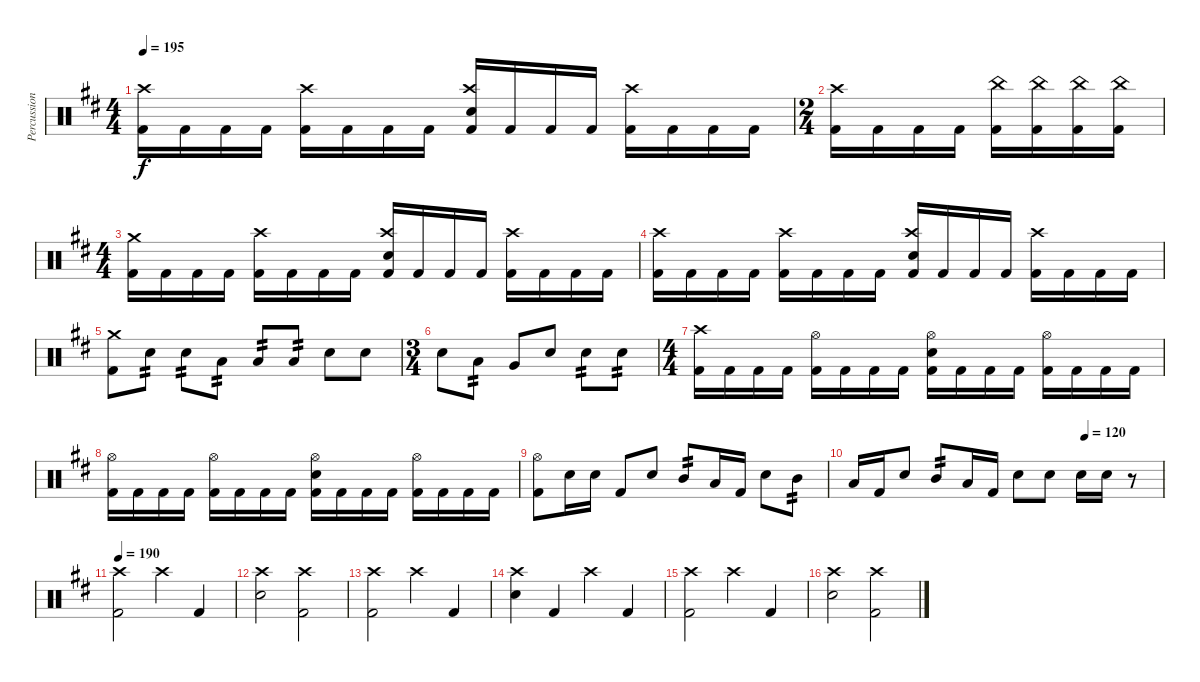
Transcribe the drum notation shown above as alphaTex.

\track ("Percussion" "Percussion") {instrument percussion}
\staff {score}
\articulation defaults
\ts (4 4)
\tempo 195
\clef neutral
\ks d
("Kick (hit) 2" "Crash high (hit)").16{dy f} "Kick (hit) 2".16 "Kick (hit) 2".16 "Kick (hit) 2".16 ("Kick (hit) 2" "Crash high (hit)").16 "Kick (hit) 2".16 "Kick (hit) 2".16 "Kick (hit) 2".16 ("Kick (hit) 2" "Crash high (hit)" "Electric Snare (hit)").16 "Kick (hit) 2".16 "Kick (hit) 2".16 "Kick (hit) 2".16 ("Kick (hit) 2" "Crash high (hit)").16 "Kick (hit) 2".16 "Kick (hit) 2".16 "Kick (hit) 2".16 |
\ts (2 4)
("Kick (hit) 2" "Crash high (hit)").16 "Kick (hit) 2".16 "Kick (hit) 2".16 "Kick (hit) 2".16 ("Kick (hit) 2" "China (hit)").16 ("Kick (hit) 2" "China (hit)").16 ("Kick (hit) 2" "China (hit)").16 ("Kick (hit) 2" "China (hit)").16 |
\ts (4 4)
("Kick (hit) 2" "Crash medium (hit)").16 "Kick (hit) 2".16 "Kick (hit) 2".16 "Kick (hit) 2".16 ("Kick (hit) 2" "Crash high (hit)").16 "Kick (hit) 2".16 "Kick (hit) 2".16 "Kick (hit) 2".16 ("Kick (hit) 2" "Crash high (hit)" "Electric Snare (hit)").16 "Kick (hit) 2".16 "Kick (hit) 2".16 "Kick (hit) 2".16 ("Kick (hit) 2" "Crash high (hit)").16 "Kick (hit) 2".16 "Kick (hit) 2".16 "Kick (hit) 2".16 |
("Kick (hit) 2" "Crash high (hit)").16 "Kick (hit) 2".16 "Kick (hit) 2".16 "Kick (hit) 2".16 ("Kick (hit) 2" "Crash high (hit)").16 "Kick (hit) 2".16 "Kick (hit) 2".16 "Kick (hit) 2".16 ("Kick (hit) 2" "Crash high (hit)" "Electric Snare (hit)").16 "Kick (hit) 2".16 "Kick (hit) 2".16 "Kick (hit) 2".16 ("Kick (hit) 2" "Crash high (hit)").16 "Kick (hit) 2".16 "Kick (hit) 2".16 "Kick (hit) 2".16 |
("Crash medium (hit)" "Kick (hit) 2").8 "Electric Snare (hit)".8{tp 2} "Electric Snare (hit)".8{tp 2} "Low Tom (hit)".8{tp 2} "Low Tom (hit)".8{tp 2} "Low Tom (hit)".8{tp 2} "Electric Snare (hit)".8 "Electric Snare (hit)".8 |
\ts (3 4)
"Electric Snare (hit)".8 "Low Tom (hit)".8{tp 2} "Very Low Tom (hit)".8 "Electric Snare (hit)".8 "Electric Snare (hit)".8{tp 2} "Electric Snare (hit)".8{tp 2} |
\ts (4 4)
("Kick (hit) 2" "Crash high (hit)").16 "Kick (hit) 2".16 "Kick (hit) 2".16 "Kick (hit) 2".16 ("Kick (hit) 2" "Hi-Hat (open)").16 "Kick (hit) 2".16 "Kick (hit) 2".16 "Kick (hit) 2".16 ("Kick (hit) 2" "Hi-Hat (open)" "Electric Snare (hit)").16 "Kick (hit) 2".16 "Kick (hit) 2".16 "Kick (hit) 2".16 ("Kick (hit) 2" "Hi-Hat (open)").16 "Kick (hit) 2".16 "Kick (hit) 2".16 "Kick (hit) 2".16 |
("Kick (hit) 2" "Hi-Hat (open)").16 "Kick (hit) 2".16 "Kick (hit) 2".16 "Kick (hit) 2".16 ("Kick (hit) 2" "Hi-Hat (open)").16 "Kick (hit) 2".16 "Kick (hit) 2".16 "Kick (hit) 2".16 ("Kick (hit) 2" "Hi-Hat (open)" "Electric Snare (hit)").16 "Kick (hit) 2".16 "Kick (hit) 2".16 "Kick (hit) 2".16 ("Kick (hit) 2" "Hi-Hat (open)").16 "Kick (hit) 2".16 "Kick (hit) 2".16 "Kick (hit) 2".16 |
("Hi-Hat (open)" "Kick (hit) 2").8 "Electric Snare (hit)".16 "Electric Snare (hit)".16 "Kick (hit) 2".8 "Electric Snare (hit)".8 "Mid Tom (hit)".8{tp 2} "Low Tom (hit)".16 "Kick (hit) 2".16 "Electric Snare (hit)".8 "Mid Tom (hit)".8{tp 2} |
\tempo (120 0.75)
"Low Tom (hit)".16 "Kick (hit) 2".16 "Electric Snare (hit)".8 "Mid Tom (hit)".8{tp 2} "Low Tom (hit)".16 "Kick (hit) 2".16 "Electric Snare (hit)".8 "Electric Snare (hit)".8 "Electric Snare (hit)".16 "Electric Snare (hit)".16 r.8 |
\tempo 190
("Crash high (hit)" "Kick (hit) 2").2 "Crash high (hit)".4 "Kick (hit) 2".4 |
("Crash high (hit)" "Electric Snare (hit)").2 ("Crash high (hit)" "Kick (hit) 2").2 |
("Crash high (hit)" "Kick (hit) 2").2 "Crash high (hit)".4 "Kick (hit) 2".4 |
("Crash high (hit)" "Electric Snare (hit)").4 "Kick (hit) 2".4 "Crash high (hit)".4 "Kick (hit) 2".4 |
("Crash high (hit)" "Kick (hit) 2").2 "Crash high (hit)".4 "Kick (hit) 2".4 |
("Crash high (hit)" "Electric Snare (hit)").2 ("Crash high (hit)" "Kick (hit) 2").2
